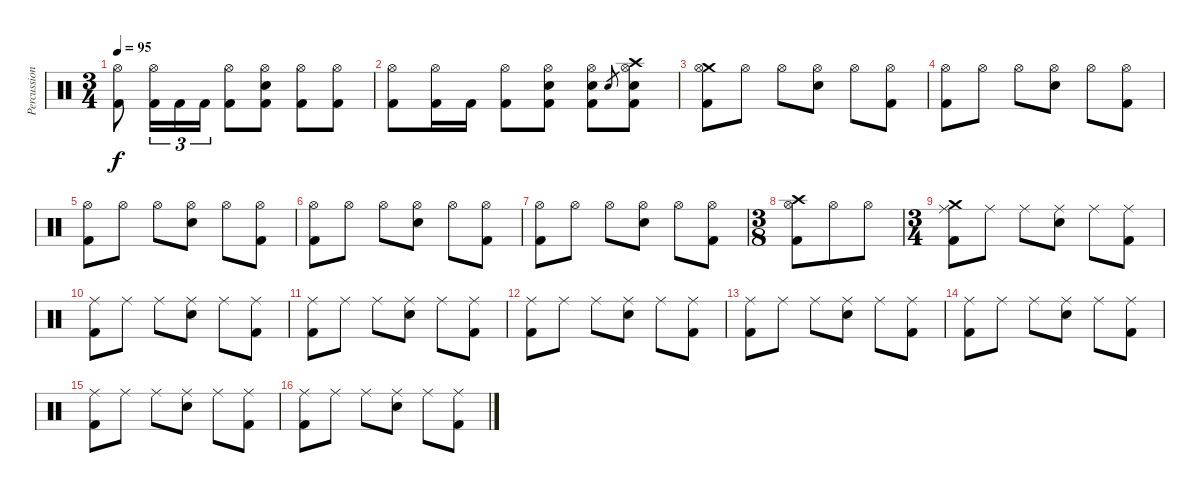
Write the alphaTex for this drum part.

\track ("Percussion" "Percussion") {instrument percussion}
\staff {score}
\articulation defaults
\ts (3 4)
\tempo 95
\clef neutral
\ks c
("Hi-Hat (open)" "Kick (hit) 2").8{dy f} ("Hi-Hat (open)" "Kick (hit) 2").16{tu (3 2)} "Kick (hit) 2".16{tu (3 2)} "Kick (hit) 2".16{tu (3 2)} ("Hi-Hat (open)" "Kick (hit) 2").8 ("Hi-Hat (open)" "Electric Snare (hit)" "Kick (hit) 2").8 ("Hi-Hat (open)" "Kick (hit) 2").8 ("Hi-Hat (open)" "Kick (hit) 2").8 |
("Hi-Hat (open)" "Kick (hit) 2").8 ("Hi-Hat (open)" "Kick (hit) 2").16 "Kick (hit) 2".16 ("Hi-Hat (open)" "Kick (hit) 2").8 ("Hi-Hat (open)" "Electric Snare (hit)" "Kick (hit) 2").8 ("Hi-Hat (open)" "Electric Snare (hit)" "Kick (hit) 2").8 "Electric Snare (hit)".8{gr} ("Crash high (hit)" "Hi-Hat (open)" "Electric Snare (hit)" "Kick (hit) 2").8 |
("Crash medium (hit)" "Hi-Hat (open)" "Kick (hit) 2").8 "Hi-Hat (open)".8 "Hi-Hat (open)".8 ("Hi-Hat (open)" "Electric Snare (hit)").8 "Hi-Hat (open)".8 ("Hi-Hat (open)" "Kick (hit) 2").8 |
("Hi-Hat (open)" "Kick (hit) 2").8 "Hi-Hat (open)".8 "Hi-Hat (open)".8 ("Hi-Hat (open)" "Electric Snare (hit)").8 "Hi-Hat (open)".8 ("Hi-Hat (open)" "Kick (hit) 2").8 |
("Hi-Hat (open)" "Kick (hit) 2").8 "Hi-Hat (open)".8 "Hi-Hat (open)".8 ("Hi-Hat (open)" "Electric Snare (hit)").8 "Hi-Hat (open)".8 ("Hi-Hat (open)" "Kick (hit) 2").8 |
("Hi-Hat (open)" "Kick (hit) 2").8 "Hi-Hat (open)".8 "Hi-Hat (open)".8 ("Hi-Hat (open)" "Electric Snare (hit)").8 "Hi-Hat (open)".8 ("Hi-Hat (open)" "Kick (hit) 2").8 |
("Hi-Hat (open)" "Kick (hit) 2").8 "Hi-Hat (open)".8 "Hi-Hat (open)".8 ("Hi-Hat (open)" "Electric Snare (hit)").8 "Hi-Hat (open)".8 ("Hi-Hat (open)" "Kick (hit) 2").8 |
\ts (3 8)
("Crash high (hit)" "Hi-Hat (open)" "Kick (hit) 2").8 "Hi-Hat (open)".8 "Hi-Hat (open)".8 |
\ts (3 4)
("Crash medium (hit)" "Ride (middle)" "Kick (hit) 2").8 "Ride (middle)".8 "Ride (middle)".8 ("Ride (middle)" "Electric Snare (hit)").8 "Ride (middle)".8 ("Ride (middle)" "Kick (hit) 2").8 |
("Ride (middle)" "Kick (hit) 2").8 "Ride (middle)".8 "Ride (middle)".8 ("Ride (middle)" "Electric Snare (hit)").8 "Ride (middle)".8 ("Ride (middle)" "Kick (hit) 2").8 |
("Ride (middle)" "Kick (hit) 2").8 "Ride (middle)".8 "Ride (middle)".8 ("Ride (middle)" "Electric Snare (hit)").8 "Ride (middle)".8 ("Ride (middle)" "Kick (hit) 2").8 |
("Ride (middle)" "Kick (hit) 2").8 "Ride (middle)".8 "Ride (middle)".8 ("Ride (middle)" "Electric Snare (hit)").8 "Ride (middle)".8 ("Ride (middle)" "Kick (hit) 2").8 |
("Ride (middle)" "Kick (hit) 2").8 "Ride (middle)".8 "Ride (middle)".8 ("Ride (middle)" "Electric Snare (hit)").8 "Ride (middle)".8 ("Ride (middle)" "Kick (hit) 2").8 |
("Ride (middle)" "Kick (hit) 2").8 "Ride (middle)".8 "Ride (middle)".8 ("Ride (middle)" "Electric Snare (hit)").8 "Ride (middle)".8 ("Ride (middle)" "Kick (hit) 2").8 |
("Ride (middle)" "Kick (hit) 2").8 "Ride (middle)".8 "Ride (middle)".8 ("Ride (middle)" "Electric Snare (hit)").8 "Ride (middle)".8 ("Ride (middle)" "Kick (hit) 2").8 |
("Ride (middle)" "Kick (hit) 2").8 "Ride (middle)".8 "Ride (middle)".8 ("Ride (middle)" "Electric Snare (hit)").8 "Ride (middle)".8 ("Ride (middle)" "Kick (hit) 2").8
